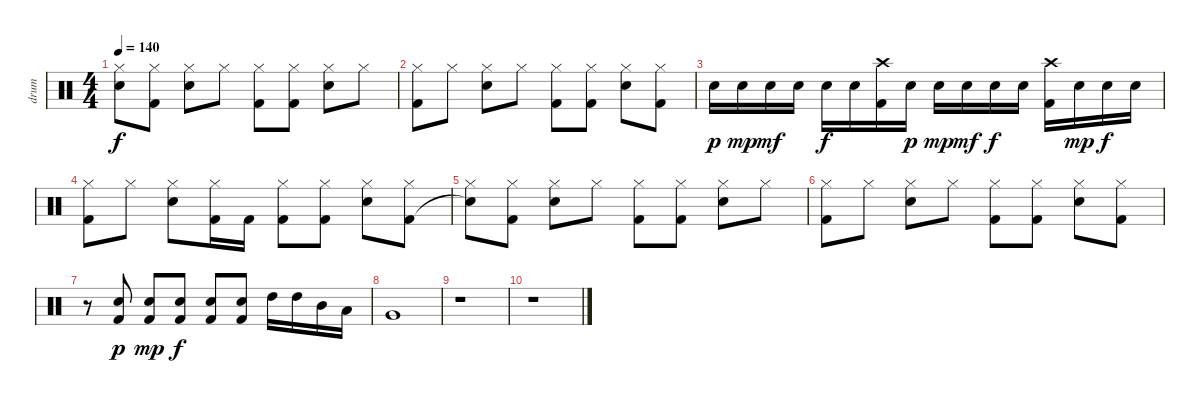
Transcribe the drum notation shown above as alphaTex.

\track ("drum" "drum") {instrument percussion}
\staff {score}
\articulation defaults
\ts (4 4)
\tempo 140
\clef neutral
\ks c
("Hi-Hat (closed)" "Snare (hit)"{t}).8{dy f} ("Hi-Hat (closed)" "Kick (hit) 2").8 ("Hi-Hat (closed)" "Snare (hit) 2").8 "Hi-Hat (closed)".8 ("Hi-Hat (closed)" "Kick (hit) 2").8 ("Hi-Hat (closed)" "Kick (hit) 2").8 ("Hi-Hat (closed)" "Snare (hit) 2").8 "Hi-Hat (closed)".8 |
("Hi-Hat (closed)" "Kick (hit) 2").8 "Hi-Hat (closed)".8 ("Hi-Hat (closed)" "Snare (hit) 2").8 "Hi-Hat (closed)".8 ("Hi-Hat (closed)" "Kick (hit) 2").8 ("Hi-Hat (closed)" "Kick (hit) 2").8 ("Hi-Hat (closed)" "Snare (hit) 2").8 ("Hi-Hat (closed)" "Kick (hit) 2").8 |
"Snare (hit) 2".16{dy p} "Snare (hit) 2".16{dy mp} "Snare (hit) 2".16{dy mf} "Snare (hit) 2".16 "Snare (hit) 2".16{dy f} "Snare (hit) 2".16 ("Crash high (hit)" "Kick (hit) 2").16 "Snare (hit) 2".16{dy p} "Snare (hit) 2".16{dy mp} "Snare (hit) 2".16{dy mf} "Snare (hit) 2".16{dy f} "Snare (hit) 2".16 ("Crash high (hit)" "Kick (hit) 2").16 "Snare (hit) 2".16{dy mp} "Snare (hit) 2".16{dy f} "Snare (hit) 2".16 |
("Hi-Hat (closed)" "Kick (hit) 2").8 "Hi-Hat (closed)".8 ("Hi-Hat (closed)" "Snare (hit) 2").8 ("Hi-Hat (closed)" "Kick (hit) 2").16 "Kick (hit) 2".16 ("Hi-Hat (closed)" "Kick (hit) 2").8 ("Hi-Hat (closed)" "Kick (hit) 2").8 ("Hi-Hat (closed)" "Snare (hit) 2").8 ("Hi-Hat (closed)" "Kick (hit) 2").8 |
("Hi-Hat (closed)" "Snare (hit)"{t}).8 ("Hi-Hat (closed)" "Kick (hit) 2").8 ("Hi-Hat (closed)" "Snare (hit) 2").8 "Hi-Hat (closed)".8 ("Hi-Hat (closed)" "Kick (hit) 2").8 ("Hi-Hat (closed)" "Kick (hit) 2").8 ("Hi-Hat (closed)" "Snare (hit) 2").8 "Hi-Hat (closed)".8 |
("Hi-Hat (closed)" "Kick (hit) 2").8 "Hi-Hat (closed)".8 ("Hi-Hat (closed)" "Snare (hit) 2").8 "Hi-Hat (closed)".8 ("Hi-Hat (closed)" "Kick (hit) 2").8 ("Hi-Hat (closed)" "Kick (hit) 2").8 ("Hi-Hat (closed)" "Snare (hit) 2").8 ("Hi-Hat (closed)" "Kick (hit) 2").8 |
r.8 ("Snare (hit) 2" "Kick (hit) 2").8{dy p} ("Snare (hit) 2" "Kick (hit) 2").8{dy mp} ("Snare (hit) 2" "Kick (hit) 2").8{dy f} ("Snare (hit) 2" "Kick (hit) 2").8 ("Snare (hit) 2" "Kick (hit) 2").8 "High Tom (hit)".16 "High Tom (hit)".16 "Mid Tom (hit)".16 "Low Tom (hit)".16 |
"Very Low Tom (hit)".1 |
r.1 |
r.1
